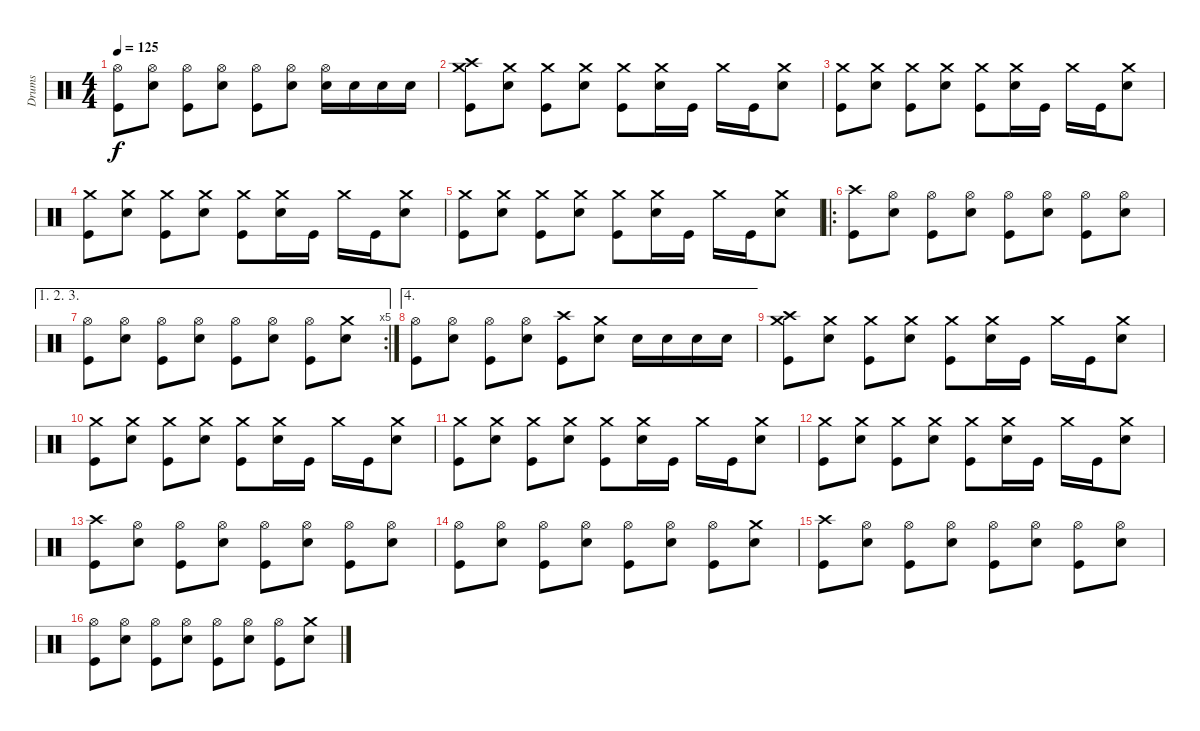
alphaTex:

\track ("Drums" "Drums") {instrument percussion}
\staff {score}
\articulation defaults
\ts (4 4)
\tempo 125
\clef neutral
\ks c
("Hi-Hat (open)" "Kick (hit)").8{dy f} ("Hi-Hat (open)" "Electric Snare (hit)").8 ("Hi-Hat (open)" "Kick (hit)").8 ("Hi-Hat (open)" "Electric Snare (hit)").8 ("Hi-Hat (open)" "Kick (hit)").8 ("Hi-Hat (open)" "Electric Snare (hit)").8 ("Hi-Hat (open)" "Electric Snare (hit)").16 "Electric Snare (hit)".16 "Electric Snare (hit)".16 "Electric Snare (hit)".16 |
("Crash high (hit)" "Crash medium (hit)" "Kick (hit)").8 ("Crash medium (hit)" "Electric Snare (hit)").8 ("Crash medium (hit)" "Kick (hit)").8 ("Crash medium (hit)" "Electric Snare (hit)").8 ("Crash medium (hit)" "Kick (hit)").8 ("Crash medium (hit)" "Electric Snare (hit)").16 "Kick (hit)".16 "Crash medium (hit)".16 "Kick (hit)".16 ("Crash medium (hit)" "Electric Snare (hit)").8 |
("Crash medium (hit)" "Kick (hit)").8 ("Crash medium (hit)" "Electric Snare (hit)").8 ("Crash medium (hit)" "Kick (hit)").8 ("Crash medium (hit)" "Electric Snare (hit)").8 ("Crash medium (hit)" "Kick (hit)").8 ("Crash medium (hit)" "Electric Snare (hit)").16 "Kick (hit)".16 "Crash medium (hit)".16 "Kick (hit)".16 ("Crash medium (hit)" "Electric Snare (hit)").8 |
("Crash medium (hit)" "Kick (hit)").8 ("Crash medium (hit)" "Electric Snare (hit)").8 ("Crash medium (hit)" "Kick (hit)").8 ("Crash medium (hit)" "Electric Snare (hit)").8 ("Crash medium (hit)" "Kick (hit)").8 ("Crash medium (hit)" "Electric Snare (hit)").16 "Kick (hit)".16 "Crash medium (hit)".16 "Kick (hit)".16 ("Crash medium (hit)" "Electric Snare (hit)").8 |
("Crash medium (hit)" "Kick (hit)").8 ("Crash medium (hit)" "Electric Snare (hit)").8 ("Crash medium (hit)" "Kick (hit)").8 ("Crash medium (hit)" "Electric Snare (hit)").8 ("Crash medium (hit)" "Kick (hit)").8 ("Crash medium (hit)" "Electric Snare (hit)").16 "Kick (hit)".16 "Crash medium (hit)".16 "Kick (hit)".16 ("Crash medium (hit)" "Electric Snare (hit)").8 |
\ro
("Crash high (hit)" "Kick (hit)").8 ("Hi-Hat (open)" "Electric Snare (hit)").8 ("Hi-Hat (open)" "Kick (hit)").8 ("Hi-Hat (open)" "Electric Snare (hit)").8 ("Hi-Hat (open)" "Kick (hit)").8 ("Hi-Hat (open)" "Electric Snare (hit)").8 ("Hi-Hat (open)" "Kick (hit)").8 ("Hi-Hat (open)" "Electric Snare (hit)").8 |
\ae (1 2 3)
\rc 5
("Hi-Hat (open)" "Kick (hit)").8 ("Hi-Hat (open)" "Electric Snare (hit)").8 ("Hi-Hat (open)" "Kick (hit)").8 ("Hi-Hat (open)" "Electric Snare (hit)").8 ("Hi-Hat (open)" "Kick (hit)").8 ("Hi-Hat (open)" "Electric Snare (hit)").8 ("Hi-Hat (open)" "Kick (hit)").8 ("Crash medium (hit)" "Electric Snare (hit)").8 |
\ae 4
("Hi-Hat (open)" "Kick (hit)").8 ("Hi-Hat (open)" "Electric Snare (hit)").8 ("Hi-Hat (open)" "Kick (hit)").8 ("Hi-Hat (open)" "Electric Snare (hit)").8 ("Crash high (hit)" "Kick (hit)").8 ("Crash medium (hit)" "Electric Snare (hit)").8 "Electric Snare (hit)".16 "Electric Snare (hit)".16 "Electric Snare (hit)".16 "Electric Snare (hit)".16 |
("Crash high (hit)" "Crash medium (hit)" "Kick (hit)").8 ("Crash medium (hit)" "Electric Snare (hit)").8 ("Crash medium (hit)" "Kick (hit)").8 ("Crash medium (hit)" "Electric Snare (hit)").8 ("Crash medium (hit)" "Kick (hit)").8 ("Crash medium (hit)" "Electric Snare (hit)").16 "Kick (hit)".16 "Crash medium (hit)".16 "Kick (hit)".16 ("Crash medium (hit)" "Electric Snare (hit)").8 |
("Crash medium (hit)" "Kick (hit)").8 ("Crash medium (hit)" "Electric Snare (hit)").8 ("Crash medium (hit)" "Kick (hit)").8 ("Crash medium (hit)" "Electric Snare (hit)").8 ("Crash medium (hit)" "Kick (hit)").8 ("Crash medium (hit)" "Electric Snare (hit)").16 "Kick (hit)".16 "Crash medium (hit)".16 "Kick (hit)".16 ("Crash medium (hit)" "Electric Snare (hit)").8 |
("Crash medium (hit)" "Kick (hit)").8 ("Crash medium (hit)" "Electric Snare (hit)").8 ("Crash medium (hit)" "Kick (hit)").8 ("Crash medium (hit)" "Electric Snare (hit)").8 ("Crash medium (hit)" "Kick (hit)").8 ("Crash medium (hit)" "Electric Snare (hit)").16 "Kick (hit)".16 "Crash medium (hit)".16 "Kick (hit)".16 ("Crash medium (hit)" "Electric Snare (hit)").8 |
("Crash medium (hit)" "Kick (hit)").8 ("Crash medium (hit)" "Electric Snare (hit)").8 ("Crash medium (hit)" "Kick (hit)").8 ("Crash medium (hit)" "Electric Snare (hit)").8 ("Crash medium (hit)" "Kick (hit)").8 ("Crash medium (hit)" "Electric Snare (hit)").16 "Kick (hit)".16 "Crash medium (hit)".16 "Kick (hit)".16 ("Crash medium (hit)" "Electric Snare (hit)").8 |
("Crash high (hit)" "Kick (hit)").8 ("Hi-Hat (open)" "Electric Snare (hit)").8 ("Hi-Hat (open)" "Kick (hit)").8 ("Hi-Hat (open)" "Electric Snare (hit)").8 ("Hi-Hat (open)" "Kick (hit)").8 ("Hi-Hat (open)" "Electric Snare (hit)").8 ("Hi-Hat (open)" "Kick (hit)").8 ("Hi-Hat (open)" "Electric Snare (hit)").8 |
("Hi-Hat (open)" "Kick (hit)").8 ("Hi-Hat (open)" "Electric Snare (hit)").8 ("Hi-Hat (open)" "Kick (hit)").8 ("Hi-Hat (open)" "Electric Snare (hit)").8 ("Hi-Hat (open)" "Kick (hit)").8 ("Hi-Hat (open)" "Electric Snare (hit)").8 ("Hi-Hat (open)" "Kick (hit)").8 ("Crash medium (hit)" "Electric Snare (hit)").8 |
("Crash high (hit)" "Kick (hit)").8 ("Hi-Hat (open)" "Electric Snare (hit)").8 ("Hi-Hat (open)" "Kick (hit)").8 ("Hi-Hat (open)" "Electric Snare (hit)").8 ("Hi-Hat (open)" "Kick (hit)").8 ("Hi-Hat (open)" "Electric Snare (hit)").8 ("Hi-Hat (open)" "Kick (hit)").8 ("Hi-Hat (open)" "Electric Snare (hit)").8 |
("Hi-Hat (open)" "Kick (hit)").8 ("Hi-Hat (open)" "Electric Snare (hit)").8 ("Hi-Hat (open)" "Kick (hit)").8 ("Hi-Hat (open)" "Electric Snare (hit)").8 ("Hi-Hat (open)" "Kick (hit)").8 ("Hi-Hat (open)" "Electric Snare (hit)").8 ("Hi-Hat (open)" "Kick (hit)").8 ("Crash medium (hit)" "Electric Snare (hit)").8
